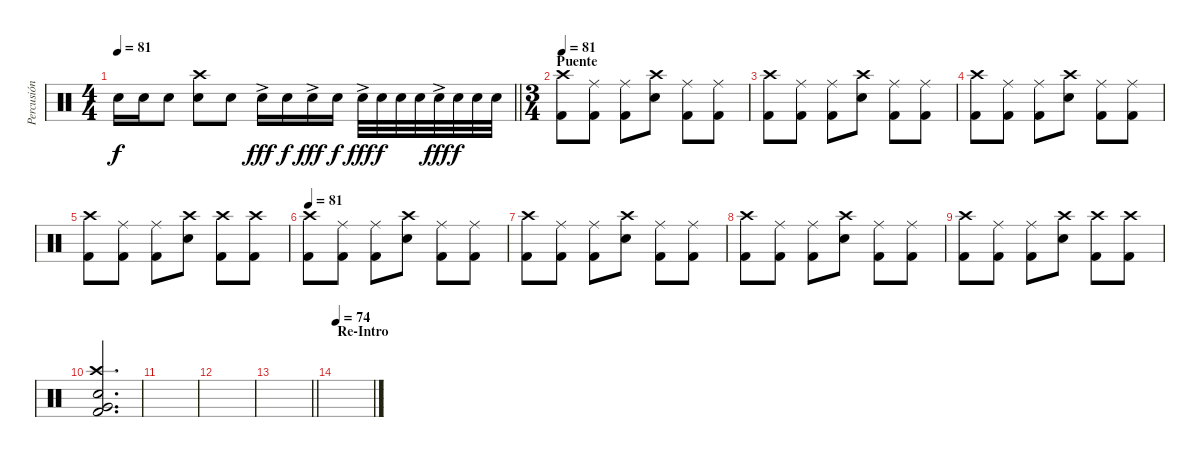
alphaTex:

\track ("Percusión" "Percusión") {instrument percussion}
\staff {score}
\articulation defaults
\ts (4 4)
\tempo 81
\clef neutral
\barLineRight lightlight
\ks c "Electric Snare (hit)".16{dy f} "Electric Snare (hit)".16 "Electric Snare (hit)".8
("Crash high (hit)" "Electric Snare (hit)").8 "Electric Snare (hit)".8 "Electric Snare (hit)"{ac}.16{dy fff} "Electric Snare (hit)".16{dy f} "Electric Snare (hit)"{ac}.16{dy fff} "Electric Snare (hit)".16{dy f} "Electric Snare (hit)"{ac}.32{dy fff} "Electric Snare (hit)".32{dy f} "Electric Snare (hit)".32 "Electric Snare (hit)".32 "Electric Snare (hit)"{ac}.32{dy fff} "Electric Snare (hit)".32{dy f} "Electric Snare (hit)".32 "Electric Snare (hit)".32 |
\ts (3 4)
\section ("" "Puente")
\tempo 81
("Crash high (hit)" "Kick (hit) 2").8 ("Ride (middle)" "Kick (hit) 2").8 ("Ride (middle)" "Kick (hit) 2").8 ("Crash high (hit)" "Electric Snare (hit)").8 ("Ride (middle)" "Kick (hit) 2").8 ("Ride (middle)" "Kick (hit) 2").8 |
("Crash high (hit)" "Kick (hit) 2").8 ("Ride (middle)" "Kick (hit) 2").8 ("Ride (middle)" "Kick (hit) 2").8 ("Crash high (hit)" "Electric Snare (hit)").8 ("Ride (middle)" "Kick (hit) 2").8 ("Ride (middle)" "Kick (hit) 2").8 |
("Crash high (hit)" "Kick (hit) 2").8 ("Ride (middle)" "Kick (hit) 2").8 ("Ride (middle)" "Kick (hit) 2").8 ("Crash high (hit)" "Electric Snare (hit)").8 ("Ride (middle)" "Kick (hit) 2").8 ("Ride (middle)" "Kick (hit) 2").8 |
("Crash high (hit)" "Kick (hit) 2").8 ("Ride (middle)" "Kick (hit) 2").8 ("Ride (middle)" "Kick (hit) 2").8 ("Crash high (hit)" "Electric Snare (hit)").8 ("Crash high (hit)" "Kick (hit) 2").8 ("Crash high (hit)" "Kick (hit) 2").8 |
\tempo 81
("Crash high (hit)" "Kick (hit) 2").8 ("Ride (middle)" "Kick (hit) 2").8 ("Ride (middle)" "Kick (hit) 2").8 ("Crash high (hit)" "Electric Snare (hit)").8 ("Ride (middle)" "Kick (hit) 2").8 ("Ride (middle)" "Kick (hit) 2").8 |
("Crash high (hit)" "Kick (hit) 2").8 ("Ride (middle)" "Kick (hit) 2").8 ("Ride (middle)" "Kick (hit) 2").8 ("Crash high (hit)" "Electric Snare (hit)").8 ("Ride (middle)" "Kick (hit) 2").8 ("Ride (middle)" "Kick (hit) 2").8 |
("Crash high (hit)" "Kick (hit) 2").8 ("Ride (middle)" "Kick (hit) 2").8 ("Ride (middle)" "Kick (hit) 2").8 ("Crash high (hit)" "Electric Snare (hit)").8 ("Ride (middle)" "Kick (hit) 2").8 ("Ride (middle)" "Kick (hit) 2").8 |
("Crash high (hit)" "Kick (hit) 2").8 ("Ride (middle)" "Kick (hit) 2").8 ("Ride (middle)" "Kick (hit) 2").8 ("Crash high (hit)" "Electric Snare (hit)").8 ("Crash high (hit)" "Kick (hit) 2").8 ("Crash high (hit)" "Kick (hit) 2").8 |
("Crash high (hit)" "Very Low Tom (hit)" "Electric Snare (hit)" "Kick (hit) 2").2{d} |
|
|
\barLineRight lightlight
|
\section ("" "Re-Intro")
\tempo 74
